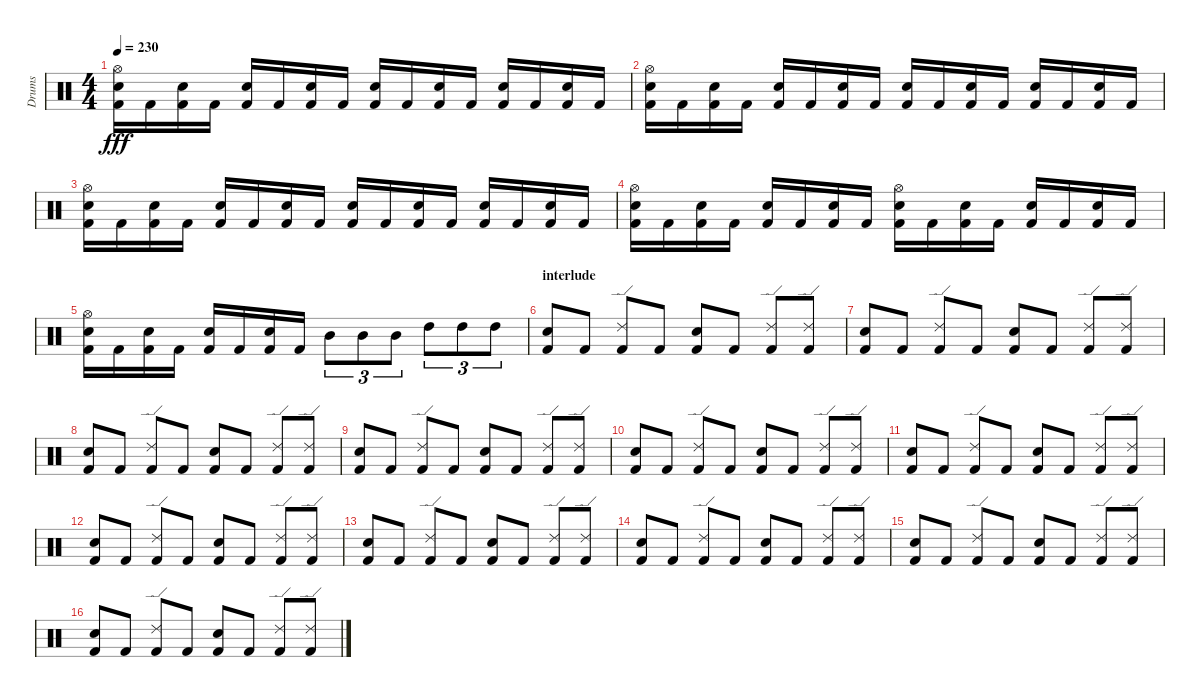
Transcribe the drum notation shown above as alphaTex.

\track ("Drums" "Drums") {instrument percussion}
\staff {score}
\articulation defaults
\ts (4 4)
\tempo 230
\clef neutral
\ks c
("Hi-Hat (open)" "Electric Snare (hit)" "Kick (hit) 2").16{dy fff} "Kick (hit) 2".16 ("Snare (hit) 2" "Kick (hit) 2").16 "Kick (hit) 2".16 ("Electric Snare (hit)" "Kick (hit) 2").16 "Kick (hit) 2".16 ("Snare (hit) 2" "Kick (hit) 2").16 "Kick (hit) 2".16 ("Electric Snare (hit)" "Kick (hit) 2").16 "Kick (hit) 2".16 ("Snare (hit) 2" "Kick (hit) 2").16 "Kick (hit) 2".16 ("Electric Snare (hit)" "Kick (hit) 2").16 "Kick (hit) 2".16 ("Snare (hit) 2" "Kick (hit) 2").16 "Kick (hit) 2".16 |
("Hi-Hat (open)" "Electric Snare (hit)" "Kick (hit) 2").16 "Kick (hit) 2".16 ("Snare (hit) 2" "Kick (hit) 2").16 "Kick (hit) 2".16 ("Electric Snare (hit)" "Kick (hit) 2").16 "Kick (hit) 2".16 ("Snare (hit) 2" "Kick (hit) 2").16 "Kick (hit) 2".16 ("Electric Snare (hit)" "Kick (hit) 2").16 "Kick (hit) 2".16 ("Snare (hit) 2" "Kick (hit) 2").16 "Kick (hit) 2".16 ("Electric Snare (hit)" "Kick (hit) 2").16 "Kick (hit) 2".16 ("Snare (hit) 2" "Kick (hit) 2").16 "Kick (hit) 2".16 |
("Hi-Hat (open)" "Electric Snare (hit)" "Kick (hit) 2").16 "Kick (hit) 2".16 ("Snare (hit) 2" "Kick (hit) 2").16 "Kick (hit) 2".16 ("Electric Snare (hit)" "Kick (hit) 2").16 "Kick (hit) 2".16 ("Snare (hit) 2" "Kick (hit) 2").16 "Kick (hit) 2".16 ("Electric Snare (hit)" "Kick (hit) 2").16 "Kick (hit) 2".16 ("Snare (hit) 2" "Kick (hit) 2").16 "Kick (hit) 2".16 ("Electric Snare (hit)" "Kick (hit) 2").16 "Kick (hit) 2".16 ("Snare (hit) 2" "Kick (hit) 2").16 "Kick (hit) 2".16 |
("Hi-Hat (open)" "Electric Snare (hit)" "Kick (hit) 2").16 "Kick (hit) 2".16 ("Snare (hit) 2" "Kick (hit) 2").16 "Kick (hit) 2".16 ("Electric Snare (hit)" "Kick (hit) 2").16 "Kick (hit) 2".16 ("Snare (hit) 2" "Kick (hit) 2").16 "Kick (hit) 2".16 ("Hi-Hat (open)" "Electric Snare (hit)" "Kick (hit) 2").16 "Kick (hit) 2".16 ("Snare (hit) 2" "Kick (hit) 2").16 "Kick (hit) 2".16 ("Electric Snare (hit)" "Kick (hit) 2").16 "Kick (hit) 2".16 ("Snare (hit) 2" "Kick (hit) 2").16 "Kick (hit) 2".16 |
("Hi-Hat (open)" "Electric Snare (hit)" "Kick (hit) 2").16 "Kick (hit) 2".16 ("Snare (hit) 2" "Kick (hit) 2").16 "Kick (hit) 2".16 ("Electric Snare (hit)" "Kick (hit) 2").16 "Kick (hit) 2".16 ("Snare (hit) 2" "Kick (hit) 2").16 "Kick (hit) 2".16 "Mid Tom (hit)".8{tu (3 2)} "Mid Tom (hit)".8{tu (3 2)} "Mid Tom (hit)".8{tu (3 2)} "High Tom (hit)".8{tu (3 2)} "High Tom (hit)".8{tu (3 2)} "High Tom (hit)".8{tu (3 2)} |
\section ("" "interlude")
("Electric Snare (hit)" "Kick (hit) 2").8 "Kick (hit) 2".8 ("Ride (edge) 2" "Kick (hit) 2").8 "Kick (hit) 2".8 ("Electric Snare (hit)" "Kick (hit) 2").8 "Kick (hit) 2".8 ("Ride (edge) 2" "Kick (hit) 2").8 ("Ride (edge) 2" "Kick (hit) 2").8 |
("Electric Snare (hit)" "Kick (hit) 2").8 "Kick (hit) 2".8 ("Ride (edge) 2" "Kick (hit) 2").8 "Kick (hit) 2".8 ("Electric Snare (hit)" "Kick (hit) 2").8 "Kick (hit) 2".8 ("Ride (edge) 2" "Kick (hit) 2").8 ("Ride (edge) 2" "Kick (hit) 2").8 |
("Electric Snare (hit)" "Kick (hit) 2").8 "Kick (hit) 2".8 ("Ride (edge) 2" "Kick (hit) 2").8 "Kick (hit) 2".8 ("Electric Snare (hit)" "Kick (hit) 2").8 "Kick (hit) 2".8 ("Ride (edge) 2" "Kick (hit) 2").8 ("Ride (edge) 2" "Kick (hit) 2").8 |
("Electric Snare (hit)" "Kick (hit) 2").8 "Kick (hit) 2".8 ("Ride (edge) 2" "Kick (hit) 2").8 "Kick (hit) 2".8 ("Electric Snare (hit)" "Kick (hit) 2").8 "Kick (hit) 2".8 ("Ride (edge) 2" "Kick (hit) 2").8 ("Ride (edge) 2" "Kick (hit) 2").8 |
("Electric Snare (hit)" "Kick (hit) 2").8 "Kick (hit) 2".8 ("Ride (edge) 2" "Kick (hit) 2").8 "Kick (hit) 2".8 ("Electric Snare (hit)" "Kick (hit) 2").8 "Kick (hit) 2".8 ("Ride (edge) 2" "Kick (hit) 2").8 ("Ride (edge) 2" "Kick (hit) 2").8 |
("Electric Snare (hit)" "Kick (hit) 2").8 "Kick (hit) 2".8 ("Ride (edge) 2" "Kick (hit) 2").8 "Kick (hit) 2".8 ("Electric Snare (hit)" "Kick (hit) 2").8 "Kick (hit) 2".8 ("Ride (edge) 2" "Kick (hit) 2").8 ("Ride (edge) 2" "Kick (hit) 2").8 |
("Electric Snare (hit)" "Kick (hit) 2").8 "Kick (hit) 2".8 ("Ride (edge) 2" "Kick (hit) 2").8 "Kick (hit) 2".8 ("Electric Snare (hit)" "Kick (hit) 2").8 "Kick (hit) 2".8 ("Ride (edge) 2" "Kick (hit) 2").8 ("Ride (edge) 2" "Kick (hit) 2").8 |
("Electric Snare (hit)" "Kick (hit) 2").8 "Kick (hit) 2".8 ("Ride (edge) 2" "Kick (hit) 2").8 "Kick (hit) 2".8 ("Electric Snare (hit)" "Kick (hit) 2").8 "Kick (hit) 2".8 ("Ride (edge) 2" "Kick (hit) 2").8 ("Ride (edge) 2" "Kick (hit) 2").8 |
("Electric Snare (hit)" "Kick (hit) 2").8 "Kick (hit) 2".8 ("Ride (edge) 2" "Kick (hit) 2").8 "Kick (hit) 2".8 ("Electric Snare (hit)" "Kick (hit) 2").8 "Kick (hit) 2".8 ("Ride (edge) 2" "Kick (hit) 2").8 ("Ride (edge) 2" "Kick (hit) 2").8 |
("Electric Snare (hit)" "Kick (hit) 2").8 "Kick (hit) 2".8 ("Ride (edge) 2" "Kick (hit) 2").8 "Kick (hit) 2".8 ("Electric Snare (hit)" "Kick (hit) 2").8 "Kick (hit) 2".8 ("Ride (edge) 2" "Kick (hit) 2").8 ("Ride (edge) 2" "Kick (hit) 2").8 |
("Electric Snare (hit)" "Kick (hit) 2").8 "Kick (hit) 2".8 ("Ride (edge) 2" "Kick (hit) 2").8 "Kick (hit) 2".8 ("Electric Snare (hit)" "Kick (hit) 2").8 "Kick (hit) 2".8 ("Ride (edge) 2" "Kick (hit) 2").8 ("Ride (edge) 2" "Kick (hit) 2").8
